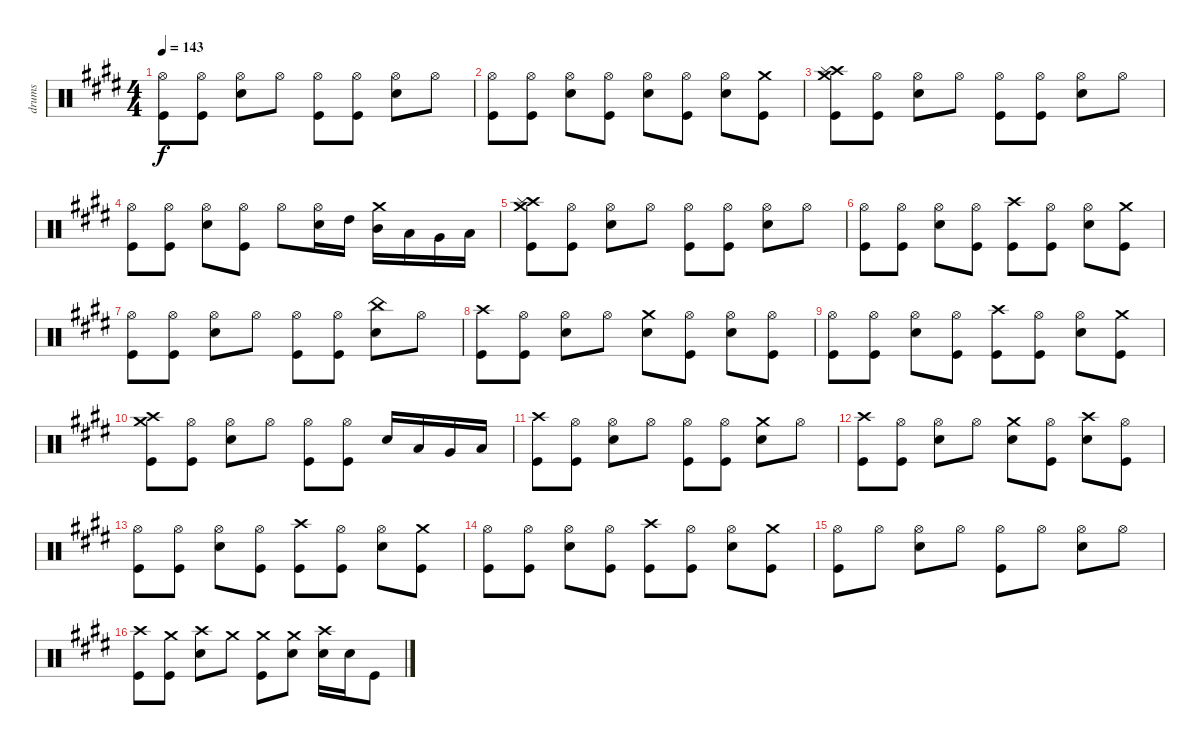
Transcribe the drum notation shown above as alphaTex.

\track ("drums" "drums") {instrument percussion}
\staff {score}
\articulation defaults
\ts (4 4)
\tempo 143
\clef neutral
\ks c#minor
("Hi-Hat (open)" "Kick (hit)").8{dy f} ("Hi-Hat (open)" "Kick (hit)").8 ("Hi-Hat (open)" "Electric Snare (hit)").8 "Hi-Hat (open)".8 ("Hi-Hat (open)" "Kick (hit)").8 ("Hi-Hat (open)" "Kick (hit)").8 ("Hi-Hat (open)" "Electric Snare (hit)").8 "Hi-Hat (open)".8 |
("Hi-Hat (open)" "Kick (hit)").8 ("Hi-Hat (open)" "Kick (hit)").8 ("Hi-Hat (open)" "Electric Snare (hit)").8 ("Hi-Hat (open)" "Kick (hit)").8 ("Hi-Hat (open)" "Electric Snare (hit)").8 ("Hi-Hat (open)" "Kick (hit)").8 ("Hi-Hat (open)" "Electric Snare (hit)").8 ("Crash medium (hit)" "Kick (hit)").8 |
("Crash high (hit)" "Crash medium (hit)" "Splash (hit)" "Kick (hit)").8 ("Hi-Hat (open)" "Kick (hit)").8 ("Hi-Hat (open)" "Electric Snare (hit)").8 "Hi-Hat (open)".8 ("Hi-Hat (open)" "Kick (hit)").8 ("Hi-Hat (open)" "Kick (hit)").8 ("Hi-Hat (open)" "Electric Snare (hit)").8 "Hi-Hat (open)".8 |
("Hi-Hat (open)" "Kick (hit)").8 ("Hi-Hat (open)" "Kick (hit)").8 ("Hi-Hat (open)" "Electric Snare (hit)").8 ("Hi-Hat (open)" "Kick (hit)").8 "Hi-Hat (open)".8 ("Hi-Hat (open)" "Electric Snare (hit)").16 "High Tom (hit)".16 ("Crash medium (hit)" "Mid Tom (hit)").16 "Low Tom (hit)".16 "Very Low Tom (hit)".16 "Low Floor Tom (hit)".16 |
("Crash high (hit)" "Crash medium (hit)" "Splash (hit)" "Kick (hit)").8 ("Hi-Hat (open)" "Kick (hit)").8 ("Hi-Hat (open)" "Electric Snare (hit)").8 "Hi-Hat (open)".8 ("Hi-Hat (open)" "Kick (hit)").8 ("Hi-Hat (open)" "Kick (hit)").8 ("Hi-Hat (open)" "Electric Snare (hit)").8 "Hi-Hat (open)".8 |
("Hi-Hat (open)" "Kick (hit)").8 ("Hi-Hat (open)" "Kick (hit)").8 ("Hi-Hat (open)" "Electric Snare (hit)").8 ("Hi-Hat (open)" "Kick (hit)").8 ("Crash high (hit)" "Kick (hit)").8 ("Hi-Hat (open)" "Kick (hit)").8 ("Hi-Hat (open)" "Electric Snare (hit)").8 ("Crash medium (hit)" "Kick (hit)").8 |
("Hi-Hat (open)" "Kick (hit)").8 ("Hi-Hat (open)" "Kick (hit)").8 ("Hi-Hat (open)" "Electric Snare (hit)").8 "Hi-Hat (open)".8 ("Hi-Hat (open)" "Kick (hit)").8 ("Hi-Hat (open)" "Kick (hit)").8 ("China (hit)" "Electric Snare (hit)").8 "Hi-Hat (open)".8 |
("Crash high (hit)" "Kick (hit)").8 ("Hi-Hat (open)" "Kick (hit)").8 ("Hi-Hat (open)" "Electric Snare (hit)").8 "Hi-Hat (open)".8 ("Crash medium (hit)" "Electric Snare (hit)").8 ("Hi-Hat (open)" "Kick (hit)").8 ("Hi-Hat (open)" "Electric Snare (hit)").8 ("Hi-Hat (open)" "Kick (hit)").8 |
("Hi-Hat (open)" "Kick (hit)").8 ("Hi-Hat (open)" "Kick (hit)").8 ("Hi-Hat (open)" "Electric Snare (hit)").8 ("Hi-Hat (open)" "Kick (hit)").8 ("Crash high (hit)" "Kick (hit)").8 ("Hi-Hat (open)" "Kick (hit)").8 ("Hi-Hat (open)" "Electric Snare (hit)").8 ("Crash medium (hit)" "Kick (hit)").8 |
("Crash high (hit)" "Crash medium (hit)" "Kick (hit)").8 ("Hi-Hat (open)" "Kick (hit)").8 ("Hi-Hat (open)" "Electric Snare (hit)").8 "Hi-Hat (open)".8 ("Hi-Hat (open)" "Kick (hit)").8 ("Hi-Hat (open)" "Kick (hit)").8 "Electric Snare (hit)".16 "Low Tom (hit)".16 "Very Low Tom (hit)".16 "Low Floor Tom (hit)".16 |
("Crash high (hit)" "Kick (hit)").8 ("Hi-Hat (open)" "Kick (hit)").8 ("Hi-Hat (open)" "Electric Snare (hit)").8 "Hi-Hat (open)".8 ("Hi-Hat (open)" "Kick (hit)").8 ("Hi-Hat (open)" "Kick (hit)").8 ("Crash medium (hit)" "Electric Snare (hit)").8 "Hi-Hat (open)".8 |
("Crash high (hit)" "Kick (hit)").8 ("Hi-Hat (open)" "Kick (hit)").8 ("Hi-Hat (open)" "Electric Snare (hit)").8 "Hi-Hat (open)".8 ("Crash medium (hit)" "Electric Snare (hit)").8 ("Hi-Hat (open)" "Kick (hit)").8 ("Crash high (hit)" "Electric Snare (hit)").8 ("Hi-Hat (open)" "Kick (hit)").8 |
("Hi-Hat (open)" "Kick (hit)").8 ("Hi-Hat (open)" "Kick (hit)").8 ("Hi-Hat (open)" "Electric Snare (hit)").8 ("Hi-Hat (open)" "Kick (hit)").8 ("Crash high (hit)" "Kick (hit)").8 ("Hi-Hat (open)" "Kick (hit)").8 ("Hi-Hat (open)" "Electric Snare (hit)").8 ("Crash medium (hit)" "Kick (hit)").8 |
("Hi-Hat (open)" "Kick (hit)").8 ("Hi-Hat (open)" "Kick (hit)").8 ("Hi-Hat (open)" "Electric Snare (hit)").8 ("Hi-Hat (open)" "Kick (hit)").8 ("Crash high (hit)" "Kick (hit)").8 ("Hi-Hat (open)" "Kick (hit)").8 ("Hi-Hat (open)" "Electric Snare (hit)").8 ("Crash medium (hit)" "Kick (hit)").8 |
("Hi-Hat (open)" "Kick (hit)").8 "Hi-Hat (open)".8 ("Hi-Hat (open)" "Electric Snare (hit)").8 "Hi-Hat (open)".8 ("Hi-Hat (open)" "Kick (hit)").8 "Hi-Hat (open)".8 ("Hi-Hat (open)" "Electric Snare (hit)").8 "Hi-Hat (open)".8 |
("Crash high (hit)" "Kick (hit)").8 ("Crash medium (hit)" "Kick (hit)").8 ("Crash high (hit)" "Electric Snare (hit)").8 "Crash medium (hit)".8 ("Crash medium (hit)" "Kick (hit)").8 ("Crash medium (hit)" "Electric Snare (hit)").8 ("Crash high (hit)" "Electric Snare (hit)").16 "Electric Snare (hit)".16 "Kick (hit)".8
